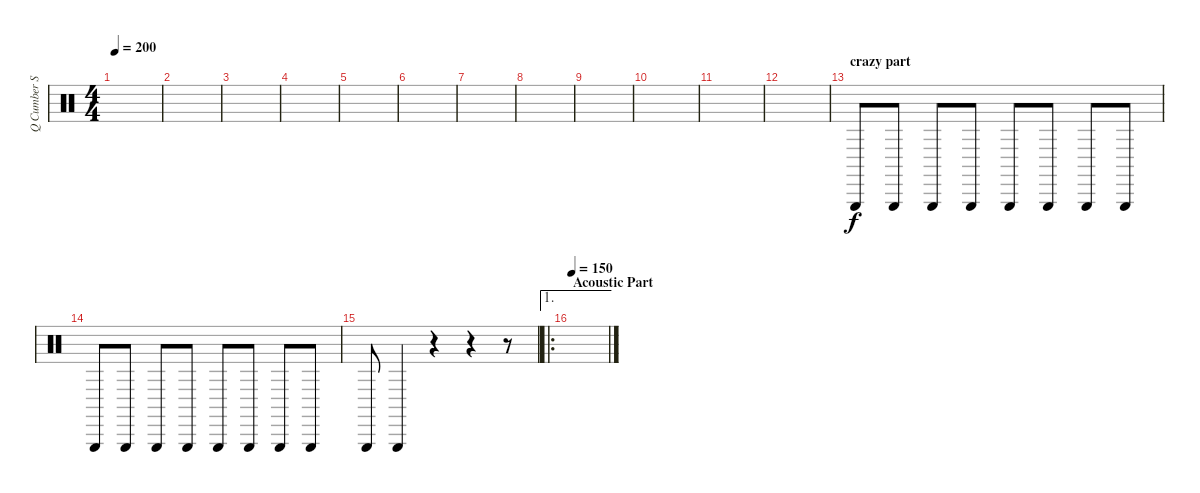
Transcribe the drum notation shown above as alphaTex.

\track ("Q Cumber Slice" "Q Cumber S") {instrument percussion}
\staff {score}
\articulation defaults
\ts (4 4)
\tempo 200
\clef neutral
\ks c
|
|
|
|
|
|
|
|
|
|
|
|
\section ("" "crazy part")
"Triangle (hit)".8 "Triangle (hit)".8 "Triangle (hit)".8 "Triangle (hit)".8 "Triangle (hit)".8 "Triangle (hit)".8 "Triangle (hit)".8 "Triangle (hit)".8 |
"Triangle (hit)".8 "Triangle (hit)".8 "Triangle (hit)".8 "Triangle (hit)".8 "Triangle (hit)".8 "Triangle (hit)".8 "Triangle (hit)".8 "Triangle (hit)".8 |
"Triangle (hit)".8 "Triangle (hit)".4 r.4 r.4 r.8 |
\ae 1
\ro
\section ("" "Acoustic Part")
\tempo 150
